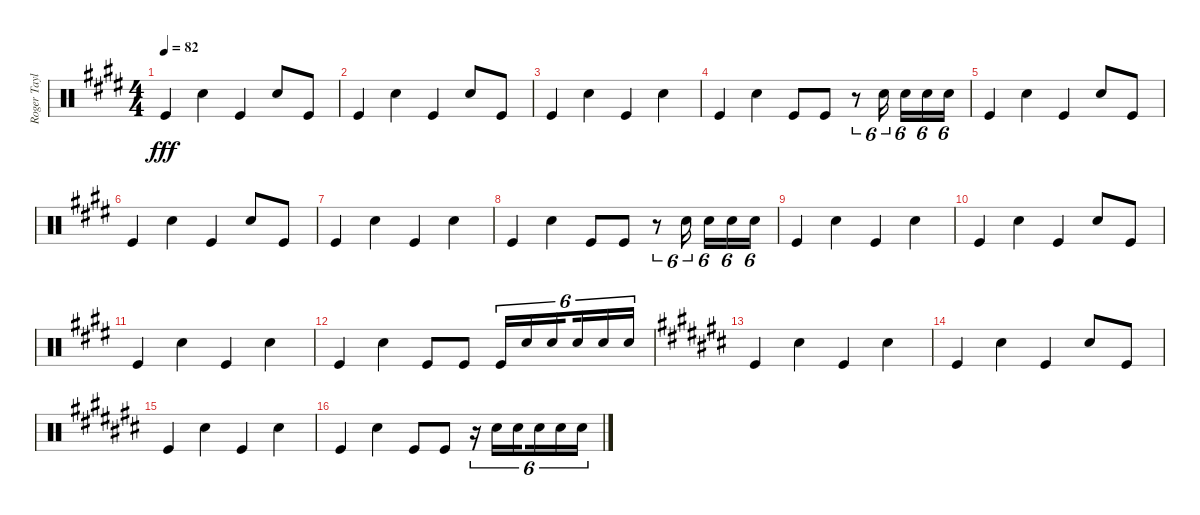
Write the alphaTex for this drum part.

\track ("Roger Taylor" "Roger Tayl") {instrument percussion}
\staff {score}
\articulation defaults
\ts (4 4)
\tempo 82
\clef neutral
\ks e "Kick (hit)".4{dy fff} "Snare (hit) 2".4 "Kick (hit)".4 "Snare (hit) 2".8 "Kick (hit)".8
|
"Kick (hit)".4 "Snare (hit) 2".4 "Kick (hit)".4 "Snare (hit) 2".8 "Kick (hit)".8 |
"Kick (hit)".4 "Snare (hit) 2".4 "Kick (hit)".4 "Snare (hit) 2".4 |
"Kick (hit)".4 "Snare (hit) 2".4 "Kick (hit)".8 "Kick (hit)".8 r.8{tu (6 4)} "Snare (hit) 2".16{tu (6 4) beam splitsecondary} "Snare (hit) 2".16{tu (6 4)} "Snare (hit) 2".16{tu (6 4)} "Snare (hit) 2".16{tu (6 4)} |
"Kick (hit)".4 "Snare (hit) 2".4 "Kick (hit)".4 "Snare (hit) 2".8 "Kick (hit)".8 |
"Kick (hit)".4 "Snare (hit) 2".4 "Kick (hit)".4 "Snare (hit) 2".8 "Kick (hit)".8 |
"Kick (hit)".4 "Snare (hit) 2".4 "Kick (hit)".4 "Snare (hit) 2".4 |
"Kick (hit)".4 "Snare (hit) 2".4 "Kick (hit)".8 "Kick (hit)".8 r.8{tu (6 4)} "Snare (hit) 2".16{tu (6 4) beam splitsecondary} "Snare (hit) 2".16{tu (6 4)} "Snare (hit) 2".16{tu (6 4)} "Snare (hit) 2".16{tu (6 4)} |
"Kick (hit)".4 "Snare (hit) 2".4 "Kick (hit)".4 "Snare (hit) 2".4 |
"Kick (hit)".4 "Snare (hit) 2".4 "Kick (hit)".4 "Snare (hit) 2".8 "Kick (hit)".8 |
"Kick (hit)".4 "Snare (hit) 2".4 "Kick (hit)".4 "Snare (hit) 2".4 |
"Kick (hit)".4 "Snare (hit) 2".4 "Kick (hit)".8 "Kick (hit)".8 "Kick (hit)".16{tu (6 4)} "Snare (hit) 2".16{tu (6 4)} "Snare (hit) 2".16{tu (6 4) beam splitsecondary} "Snare (hit) 2".16{tu (6 4)} "Snare (hit) 2".16{tu (6 4)} "Snare (hit) 2".16{tu (6 4)} |
\ks c# "Kick (hit)".4 "Snare (hit) 2".4 "Kick (hit)".4 "Snare (hit) 2".4
|
"Kick (hit)".4 "Snare (hit) 2".4 "Kick (hit)".4 "Snare (hit) 2".8 "Kick (hit)".8 |
"Kick (hit)".4 "Snare (hit) 2".4 "Kick (hit)".4 "Snare (hit) 2".4 |
"Kick (hit)".4 "Snare (hit) 2".4 "Kick (hit)".8 "Kick (hit)".8 r.16{tu (6 4)} "Snare (hit) 2".16{tu (6 4)} "Snare (hit) 2".16{tu (6 4) beam splitsecondary} "Snare (hit) 2".16{tu (6 4)} "Snare (hit) 2".16{tu (6 4)} "Snare (hit) 2".16{tu (6 4)}
